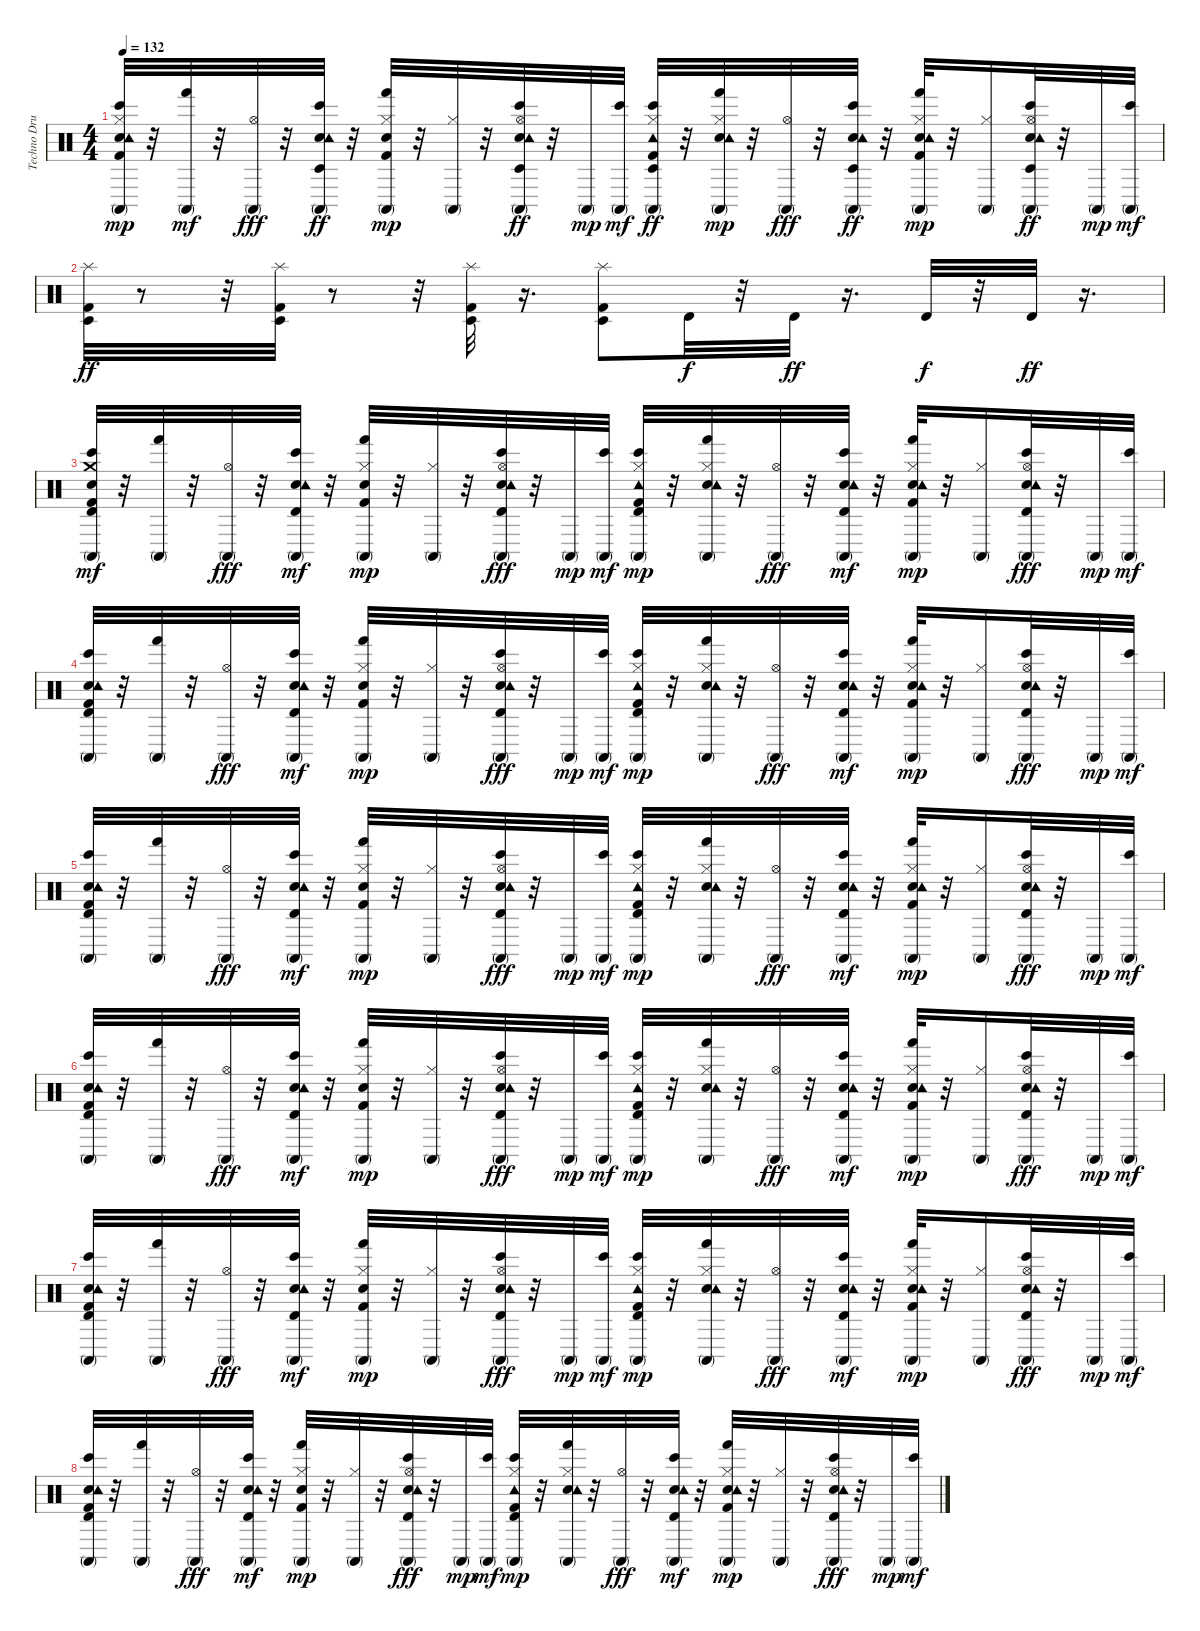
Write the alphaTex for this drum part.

\track ("Techno Drums" "Techno Dru") {instrument percussion}
\staff {score}
\articulation defaults
\ts (4 4)
\tempo 132
\clef neutral
\ks c
("Kick (hit) 2" "Hand Clap (hit)" "Tambourine (hit)" "Conga high (mute)" "Bongo High (hit)" "Hi-Hat (closed)").32{dy mp} r.32 ("Conga high (mute)" "Hand (hit)").32{dy mf} r.32 ("Conga high (mute)" "Hi-Hat (open)").32{dy fff} r.32 ("Hand Clap (hit)" "Tambourine (hit)" "Conga high (mute)" "Bongo High (hit)" "Timbale low (hit)").32{dy ff} r.32 ("Kick (hit) 2" "Hand Clap (hit)" "Conga high (mute)" "Hand (hit)" "Hi-Hat (closed)").32{dy mp} r.32 ("Conga high (mute)" "Hi-Hat (closed)").32 r.32 ("Hand Clap (hit)" "Tambourine (hit)" "Conga high (mute)" "Bongo High (hit)" "Hi-Hat (open)" "Timbale low (hit)").32{dy ff} r.32 "Conga high (mute)".32{dy mp} ("Conga high (mute)" "Bongo High (hit)").32{dy mf} ("Kick (hit) 2" "Tambourine (hit)" "Conga high (mute)" "Bongo High (hit)" "Hi-Hat (closed)" "Timbale low (hit)").32{dy ff} r.32 ("Hand Clap (hit)" "Tambourine (hit)" "Conga high (mute)" "Hand (hit)" "Hi-Hat (closed)").32{dy mp} r.32 ("Conga high (mute)" "Hi-Hat (open)").32{dy fff} r.32 ("Hand Clap (hit)" "Tambourine (hit)" "Conga high (mute)" "Bongo High (hit)" "Timbale low (hit)").32{dy ff} r.32 ("Kick (hit) 2" "Hand Clap (hit)" "Tambourine (hit)" "Conga high (mute)" "Hand (hit)" "Hi-Hat (closed)").32{dy mp} r.32 ("Conga high (mute)" "Hi-Hat (closed)").16 ("Hand Clap (hit)" "Tambourine (hit)" "Conga high (mute)" "Bongo High (hit)" "Hi-Hat (open)" "Timbale low (hit)").32{dy ff} r.32 "Conga high (mute)".32{dy mp} ("Conga high (mute)" "Bongo High (hit)").32{dy mf} |
("Kick (hit) 2" "Timbale low (hit)" "Splash (hit)").32{dy ff} r.8 r.32 ("Kick (hit) 2" "Timbale low (hit)" "Splash (hit)").32 r.8 r.32 ("Kick (hit) 2" "Timbale low (hit)" "Splash (hit)").32 r.16{d} ("Timbale low (hit)" "Splash (hit)" "Kick (hit) 2").8 "Timbale high (hit)".32{dy f} r.32 "Timbale high (hit)".32{dy ff} r.16{d} "Timbale high (hit)".32{dy f} r.32 "Timbale high (hit)".32{dy ff} r.16{d} |
("Kick (hit) 2" "Hand Clap (hit)" "Crash medium (hit)" "Conga high (mute)" "Bongo High (hit)" "Timbale high (hit)").32{dy mf} r.32 ("Conga high (mute)" "Hand (hit)").32 r.32 ("Conga high (mute)" "Hi-Hat (open)").32{dy fff} r.32 ("Hand Clap (hit)" "Tambourine (hit)" "Conga high (mute)" "Bongo High (hit)" "Timbale high (hit)").32{dy mf} r.32 ("Kick (hit) 2" "Hand Clap (hit)" "Conga high (mute)" "Hand (hit)" "Hi-Hat (closed)").32{dy mp} r.32 ("Conga high (mute)" "Hi-Hat (closed)").32 r.32 ("Hand Clap (hit)" "Tambourine (hit)" "Conga high (mute)" "Bongo High (hit)" "Timbale high (hit)" "Hi-Hat (open)").32{dy fff} r.32 "Conga high (mute)".32{dy mp} ("Conga high (mute)" "Bongo High (hit)").32{dy mf} ("Kick (hit) 2" "Tambourine (hit)" "Conga high (mute)" "Bongo High (hit)" "Timbale high (hit)" "Hi-Hat (closed)").32{dy mp} r.32 ("Hand Clap (hit)" "Tambourine (hit)" "Conga high (mute)" "Hand (hit)" "Hi-Hat (closed)").32 r.32 ("Conga high (mute)" "Hi-Hat (open)").32{dy fff} r.32 ("Hand Clap (hit)" "Tambourine (hit)" "Conga high (mute)" "Bongo High (hit)" "Timbale high (hit)").32{dy mf} r.32 ("Kick (hit) 2" "Hand Clap (hit)" "Tambourine (hit)" "Conga high (mute)" "Hand (hit)" "Hi-Hat (closed)").32{dy mp} r.32 ("Conga high (mute)" "Hi-Hat (closed)").16 ("Hand Clap (hit)" "Tambourine (hit)" "Conga high (mute)" "Bongo High (hit)" "Timbale high (hit)" "Hi-Hat (open)").32{dy fff} r.32 "Conga high (mute)".32{dy mp} ("Conga high (mute)" "Bongo High (hit)").32{dy mf} |
("Kick (hit) 2" "Hand Clap (hit)" "Tambourine (hit)" "Conga high (mute)" "Bongo High (hit)" "Timbale high (hit)").32 r.32 ("Conga high (mute)" "Hand (hit)").32 r.32 ("Conga high (mute)" "Hi-Hat (open)").32{dy fff} r.32 ("Hand Clap (hit)" "Tambourine (hit)" "Conga high (mute)" "Bongo High (hit)" "Timbale high (hit)").32{dy mf} r.32 ("Kick (hit) 2" "Hand Clap (hit)" "Conga high (mute)" "Hand (hit)" "Hi-Hat (closed)").32{dy mp} r.32 ("Conga high (mute)" "Hi-Hat (closed)").32 r.32 ("Hand Clap (hit)" "Tambourine (hit)" "Conga high (mute)" "Bongo High (hit)" "Timbale high (hit)" "Hi-Hat (open)").32{dy fff} r.32 "Conga high (mute)".32{dy mp} ("Conga high (mute)" "Bongo High (hit)").32{dy mf} ("Kick (hit) 2" "Tambourine (hit)" "Conga high (mute)" "Bongo High (hit)" "Timbale high (hit)" "Hi-Hat (closed)").32{dy mp} r.32 ("Hand Clap (hit)" "Tambourine (hit)" "Conga high (mute)" "Hand (hit)" "Hi-Hat (closed)").32 r.32 ("Conga high (mute)" "Hi-Hat (open)").32{dy fff} r.32 ("Hand Clap (hit)" "Tambourine (hit)" "Conga high (mute)" "Bongo High (hit)" "Timbale high (hit)").32{dy mf} r.32 ("Kick (hit) 2" "Hand Clap (hit)" "Tambourine (hit)" "Conga high (mute)" "Hand (hit)" "Hi-Hat (closed)").32{dy mp} r.32 ("Conga high (mute)" "Hi-Hat (closed)").16 ("Hand Clap (hit)" "Tambourine (hit)" "Conga high (mute)" "Bongo High (hit)" "Timbale high (hit)" "Hi-Hat (open)").32{dy fff} r.32 "Conga high (mute)".32{dy mp} ("Conga high (mute)" "Bongo High (hit)").32{dy mf} |
("Kick (hit) 2" "Hand Clap (hit)" "Tambourine (hit)" "Conga high (mute)" "Bongo High (hit)" "Timbale high (hit)").32 r.32 ("Conga high (mute)" "Hand (hit)").32 r.32 ("Conga high (mute)" "Hi-Hat (open)").32{dy fff} r.32 ("Hand Clap (hit)" "Tambourine (hit)" "Conga high (mute)" "Bongo High (hit)" "Timbale high (hit)").32{dy mf} r.32 ("Kick (hit) 2" "Hand Clap (hit)" "Conga high (mute)" "Hand (hit)" "Hi-Hat (closed)").32{dy mp} r.32 ("Conga high (mute)" "Hi-Hat (closed)").32 r.32 ("Hand Clap (hit)" "Tambourine (hit)" "Conga high (mute)" "Bongo High (hit)" "Timbale high (hit)" "Hi-Hat (open)").32{dy fff} r.32 "Conga high (mute)".32{dy mp} ("Conga high (mute)" "Bongo High (hit)").32{dy mf} ("Kick (hit) 2" "Tambourine (hit)" "Conga high (mute)" "Bongo High (hit)" "Timbale high (hit)" "Hi-Hat (closed)").32{dy mp} r.32 ("Hand Clap (hit)" "Tambourine (hit)" "Conga high (mute)" "Hand (hit)" "Hi-Hat (closed)").32 r.32 ("Conga high (mute)" "Hi-Hat (open)").32{dy fff} r.32 ("Hand Clap (hit)" "Tambourine (hit)" "Conga high (mute)" "Bongo High (hit)" "Timbale high (hit)").32{dy mf} r.32 ("Kick (hit) 2" "Hand Clap (hit)" "Tambourine (hit)" "Conga high (mute)" "Hand (hit)" "Hi-Hat (closed)").32{dy mp} r.32 ("Conga high (mute)" "Hi-Hat (closed)").16 ("Hand Clap (hit)" "Tambourine (hit)" "Conga high (mute)" "Bongo High (hit)" "Timbale high (hit)" "Hi-Hat (open)").32{dy fff} r.32 "Conga high (mute)".32{dy mp} ("Conga high (mute)" "Bongo High (hit)").32{dy mf} |
("Kick (hit) 2" "Hand Clap (hit)" "Tambourine (hit)" "Conga high (mute)" "Bongo High (hit)" "Timbale high (hit)").32 r.32 ("Conga high (mute)" "Hand (hit)").32 r.32 ("Conga high (mute)" "Hi-Hat (open)").32{dy fff} r.32 ("Hand Clap (hit)" "Tambourine (hit)" "Conga high (mute)" "Bongo High (hit)" "Timbale high (hit)").32{dy mf} r.32 ("Kick (hit) 2" "Hand Clap (hit)" "Conga high (mute)" "Hand (hit)" "Hi-Hat (closed)").32{dy mp} r.32 ("Conga high (mute)" "Hi-Hat (closed)").32 r.32 ("Hand Clap (hit)" "Tambourine (hit)" "Conga high (mute)" "Bongo High (hit)" "Timbale high (hit)" "Hi-Hat (open)").32{dy fff} r.32 "Conga high (mute)".32{dy mp} ("Conga high (mute)" "Bongo High (hit)").32{dy mf} ("Kick (hit) 2" "Tambourine (hit)" "Conga high (mute)" "Bongo High (hit)" "Timbale high (hit)" "Hi-Hat (closed)").32{dy mp} r.32 ("Hand Clap (hit)" "Tambourine (hit)" "Conga high (mute)" "Hand (hit)" "Hi-Hat (closed)").32 r.32 ("Conga high (mute)" "Hi-Hat (open)").32{dy fff} r.32 ("Hand Clap (hit)" "Tambourine (hit)" "Conga high (mute)" "Bongo High (hit)" "Timbale high (hit)").32{dy mf} r.32 ("Kick (hit) 2" "Hand Clap (hit)" "Tambourine (hit)" "Conga high (mute)" "Hand (hit)" "Hi-Hat (closed)").32{dy mp} r.32 ("Conga high (mute)" "Hi-Hat (closed)").16 ("Hand Clap (hit)" "Tambourine (hit)" "Conga high (mute)" "Bongo High (hit)" "Timbale high (hit)" "Hi-Hat (open)").32{dy fff} r.32 "Conga high (mute)".32{dy mp} ("Conga high (mute)" "Bongo High (hit)").32{dy mf} |
("Kick (hit) 2" "Hand Clap (hit)" "Tambourine (hit)" "Conga high (mute)" "Bongo High (hit)" "Timbale high (hit)").32 r.32 ("Conga high (mute)" "Hand (hit)").32 r.32 ("Conga high (mute)" "Hi-Hat (open)").32{dy fff} r.32 ("Hand Clap (hit)" "Tambourine (hit)" "Conga high (mute)" "Bongo High (hit)" "Timbale high (hit)").32{dy mf} r.32 ("Kick (hit) 2" "Hand Clap (hit)" "Conga high (mute)" "Hand (hit)" "Hi-Hat (closed)").32{dy mp} r.32 ("Conga high (mute)" "Hi-Hat (closed)").32 r.32 ("Hand Clap (hit)" "Tambourine (hit)" "Conga high (mute)" "Bongo High (hit)" "Timbale high (hit)" "Hi-Hat (open)").32{dy fff} r.32 "Conga high (mute)".32{dy mp} ("Conga high (mute)" "Bongo High (hit)").32{dy mf} ("Kick (hit) 2" "Tambourine (hit)" "Conga high (mute)" "Bongo High (hit)" "Timbale high (hit)" "Hi-Hat (closed)").32{dy mp} r.32 ("Hand Clap (hit)" "Tambourine (hit)" "Conga high (mute)" "Hand (hit)" "Hi-Hat (closed)").32 r.32 ("Conga high (mute)" "Hi-Hat (open)").32{dy fff} r.32 ("Hand Clap (hit)" "Tambourine (hit)" "Conga high (mute)" "Bongo High (hit)" "Timbale high (hit)").32{dy mf} r.32 ("Kick (hit) 2" "Hand Clap (hit)" "Tambourine (hit)" "Conga high (mute)" "Hand (hit)" "Hi-Hat (closed)").32{dy mp} r.32 ("Conga high (mute)" "Hi-Hat (closed)").16 ("Hand Clap (hit)" "Tambourine (hit)" "Conga high (mute)" "Bongo High (hit)" "Timbale high (hit)" "Hi-Hat (open)").32{dy fff} r.32 "Conga high (mute)".32{dy mp} ("Conga high (mute)" "Bongo High (hit)").32{dy mf} |
("Kick (hit) 2" "Hand Clap (hit)" "Tambourine (hit)" "Conga high (mute)" "Bongo High (hit)" "Timbale high (hit)").32 r.32 ("Conga high (mute)" "Hand (hit)").32 r.32 ("Conga high (mute)" "Hi-Hat (open)").32{dy fff} r.32 ("Hand Clap (hit)" "Tambourine (hit)" "Conga high (mute)" "Bongo High (hit)" "Timbale high (hit)").32{dy mf} r.32 ("Kick (hit) 2" "Hand Clap (hit)" "Conga high (mute)" "Hand (hit)" "Hi-Hat (closed)").32{dy mp} r.32 ("Conga high (mute)" "Hi-Hat (closed)").32 r.32 ("Hand Clap (hit)" "Tambourine (hit)" "Conga high (mute)" "Bongo High (hit)" "Timbale high (hit)" "Hi-Hat (open)").32{dy fff} r.32 "Conga high (mute)".32{dy mp} ("Conga high (mute)" "Bongo High (hit)").32{dy mf} ("Kick (hit) 2" "Tambourine (hit)" "Conga high (mute)" "Bongo High (hit)" "Timbale high (hit)" "Hi-Hat (closed)").32{dy mp} r.32 ("Hand Clap (hit)" "Tambourine (hit)" "Conga high (mute)" "Hand (hit)" "Hi-Hat (closed)").32 r.32 ("Conga high (mute)" "Hi-Hat (open)").32{dy fff} r.32 ("Hand Clap (hit)" "Tambourine (hit)" "Conga high (mute)" "Bongo High (hit)" "Timbale high (hit)").32{dy mf} r.32 ("Kick (hit) 2" "Hand Clap (hit)" "Tambourine (hit)" "Conga high (mute)" "Hand (hit)" "Hi-Hat (closed)").32{dy mp} r.32 ("Conga high (mute)" "Hi-Hat (closed)").32 r.32 ("Hand Clap (hit)" "Tambourine (hit)" "Conga high (mute)" "Bongo High (hit)" "Timbale high (hit)" "Hi-Hat (open)").32{dy fff} r.32 "Conga high (mute)".32{dy mp} ("Conga high (mute)" "Bongo High (hit)").32{dy mf}
